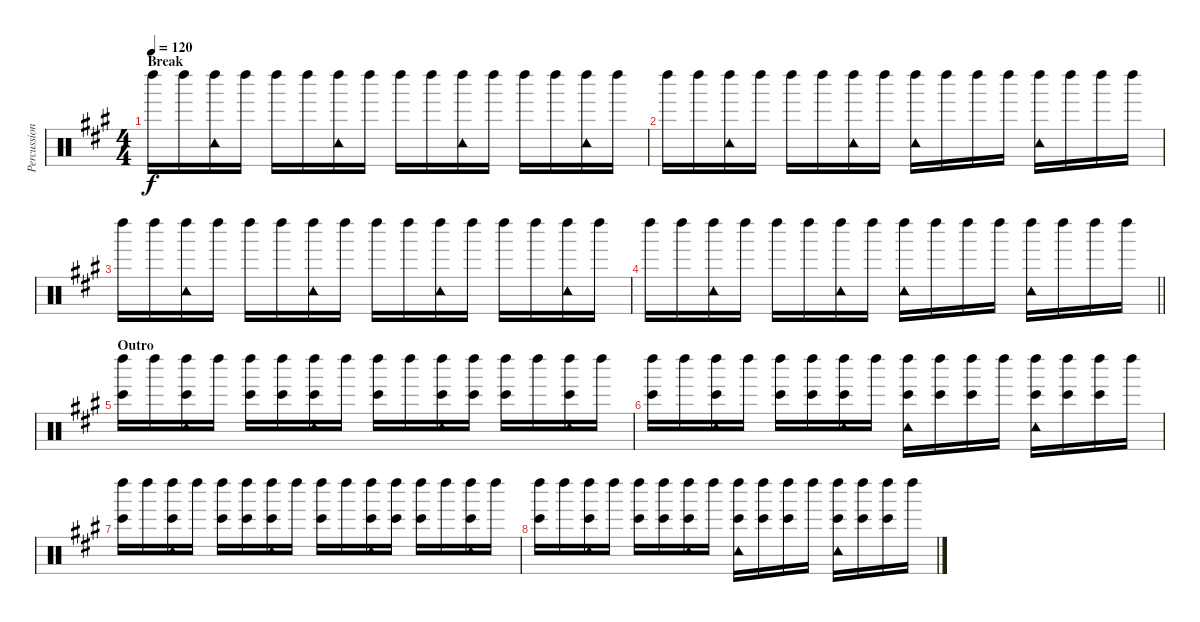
\track ("Percussion" "Percussion") {instrument percussion}
\staff {score}
\articulation defaults
\ts (4 4)
\section ("" "Break")
\tempo 120
\clef neutral
\ks a "Left Maraca (hit)".16{dy f} "Left Maraca (hit)".16
("Tambourine (hit)" "Left Maraca (hit)").16 "Left Maraca (hit)".16 "Left Maraca (hit)".16 "Left Maraca (hit)".16 ("Tambourine (hit)" "Left Maraca (hit)").16 "Left Maraca (hit)".16 "Left Maraca (hit)".16 "Left Maraca (hit)".16 ("Tambourine (hit)" "Left Maraca (hit)").16 "Left Maraca (hit)".16 "Left Maraca (hit)".16 "Left Maraca (hit)".16 ("Tambourine (hit)" "Left Maraca (hit)").16 "Left Maraca (hit)".16 |
"Left Maraca (hit)".16 "Left Maraca (hit)".16 ("Tambourine (hit)" "Left Maraca (hit)").16 "Left Maraca (hit)".16 "Left Maraca (hit)".16 "Left Maraca (hit)".16 ("Tambourine (hit)" "Left Maraca (hit)").16 "Left Maraca (hit)".16 ("Tambourine (hit)" "Left Maraca (hit)").16 "Left Maraca (hit)".16 "Left Maraca (hit)".16 "Left Maraca (hit)".16 ("Tambourine (hit)" "Left Maraca (hit)").16 "Left Maraca (hit)".16 "Left Maraca (hit)".16 "Left Maraca (hit)".16 |
"Left Maraca (hit)".16 "Left Maraca (hit)".16 ("Tambourine (hit)" "Left Maraca (hit)").16 "Left Maraca (hit)".16 "Left Maraca (hit)".16 "Left Maraca (hit)".16 ("Tambourine (hit)" "Left Maraca (hit)").16 "Left Maraca (hit)".16 "Left Maraca (hit)".16 "Left Maraca (hit)".16 ("Tambourine (hit)" "Left Maraca (hit)").16 "Left Maraca (hit)".16 "Left Maraca (hit)".16 "Left Maraca (hit)".16 ("Tambourine (hit)" "Left Maraca (hit)").16 "Left Maraca (hit)".16 |
\barLineRight lightlight "Left Maraca (hit)".16 "Left Maraca (hit)".16
("Tambourine (hit)" "Left Maraca (hit)").16 "Left Maraca (hit)".16 "Left Maraca (hit)".16 "Left Maraca (hit)".16 ("Tambourine (hit)" "Left Maraca (hit)").16 "Left Maraca (hit)".16 ("Tambourine (hit)" "Left Maraca (hit)").16 "Left Maraca (hit)".16 "Left Maraca (hit)".16 "Left Maraca (hit)".16 ("Tambourine (hit)" "Left Maraca (hit)").16 "Left Maraca (hit)".16 "Left Maraca (hit)".16 "Left Maraca (hit)".16 |
\section ("" "Outro")
("Left Maraca (hit)" "Bongo High (hit)").16 "Left Maraca (hit)".16 ("Tambourine (hit)" "Left Maraca (hit)" "Bongo High (hit)").16 "Left Maraca (hit)".16 ("Left Maraca (hit)" "Bongo High (hit)").16 ("Left Maraca (hit)" "Bongo High (hit)").16 ("Tambourine (hit)" "Left Maraca (hit)" "Bongo High (hit)").16 "Left Maraca (hit)".16 ("Left Maraca (hit)" "Bongo High (hit)").16 "Left Maraca (hit)".16 ("Tambourine (hit)" "Left Maraca (hit)" "Bongo High (hit)").16 ("Left Maraca (hit)" "Bongo High (hit)").16 ("Left Maraca (hit)" "Bongo High (hit)").16 "Left Maraca (hit)".16 ("Tambourine (hit)" "Left Maraca (hit)" "Bongo High (hit)").16 "Left Maraca (hit)".16 |
("Left Maraca (hit)" "Bongo High (hit)").16 "Left Maraca (hit)".16 ("Tambourine (hit)" "Left Maraca (hit)" "Bongo High (hit)").16 "Left Maraca (hit)".16 ("Left Maraca (hit)" "Bongo High (hit)").16 ("Left Maraca (hit)" "Bongo High (hit)").16 ("Tambourine (hit)" "Left Maraca (hit)" "Bongo High (hit)").16 "Left Maraca (hit)".16 ("Tambourine (hit)" "Left Maraca (hit)" "Bongo High (hit)").16 ("Left Maraca (hit)" "Bongo High (hit)").16 ("Left Maraca (hit)" "Bongo High (hit)").16 "Left Maraca (hit)".16 ("Tambourine (hit)" "Left Maraca (hit)" "Bongo High (hit)").16 ("Left Maraca (hit)" "Bongo High (hit)").16 ("Left Maraca (hit)" "Bongo High (hit)").16 "Left Maraca (hit)".16 |
("Left Maraca (hit)" "Bongo High (hit)").16 "Left Maraca (hit)".16 ("Tambourine (hit)" "Left Maraca (hit)" "Bongo High (hit)").16 "Left Maraca (hit)".16 ("Left Maraca (hit)" "Bongo High (hit)").16 ("Left Maraca (hit)" "Bongo High (hit)").16 ("Tambourine (hit)" "Left Maraca (hit)" "Bongo High (hit)").16 "Left Maraca (hit)".16 ("Left Maraca (hit)" "Bongo High (hit)").16 "Left Maraca (hit)".16 ("Tambourine (hit)" "Left Maraca (hit)" "Bongo High (hit)").16 ("Left Maraca (hit)" "Bongo High (hit)").16 ("Left Maraca (hit)" "Bongo High (hit)").16 "Left Maraca (hit)".16 ("Tambourine (hit)" "Left Maraca (hit)" "Bongo High (hit)").16 "Left Maraca (hit)".16 |
("Left Maraca (hit)" "Bongo High (hit)").16 "Left Maraca (hit)".16 ("Tambourine (hit)" "Left Maraca (hit)" "Bongo High (hit)").16 "Left Maraca (hit)".16 ("Left Maraca (hit)" "Bongo High (hit)").16 ("Left Maraca (hit)" "Bongo High (hit)").16 ("Tambourine (hit)" "Left Maraca (hit)" "Bongo High (hit)").16 "Left Maraca (hit)".16 ("Tambourine (hit)" "Left Maraca (hit)" "Bongo High (hit)").16 ("Left Maraca (hit)" "Bongo High (hit)").16 ("Left Maraca (hit)" "Bongo High (hit)").16 "Left Maraca (hit)".16 ("Tambourine (hit)" "Left Maraca (hit)" "Bongo High (hit)").16 ("Left Maraca (hit)" "Bongo High (hit)").16 ("Left Maraca (hit)" "Bongo High (hit)").16 "Left Maraca (hit)".16
